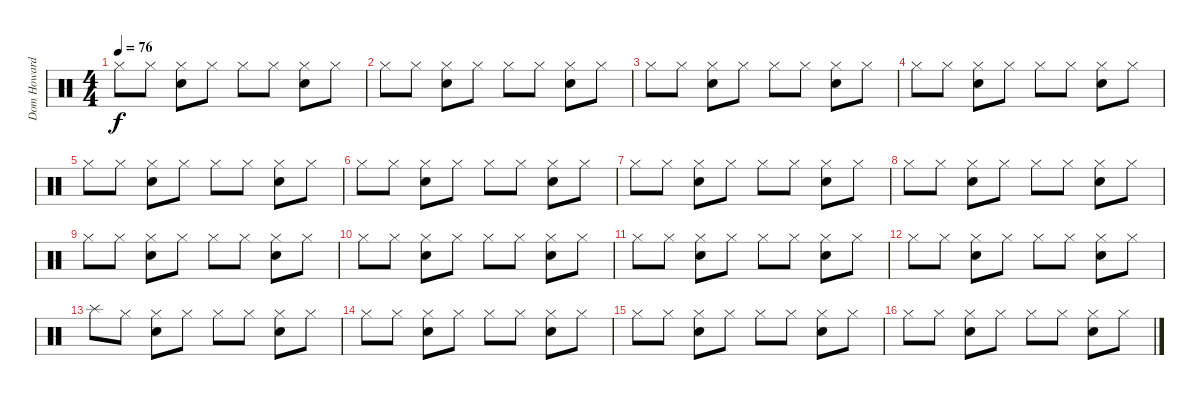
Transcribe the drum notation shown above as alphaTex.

\track ("Dom Howard" "Dom Howard") {instrument percussion}
\staff {score}
\articulation defaults
\ts (4 4)
\tempo 76
\clef neutral
\ks c "Hi-Hat (closed)".8{dy f} "Hi-Hat (closed)".8
("Hi-Hat (closed)" "Electric Snare (hit)").8 "Hi-Hat (closed)".8 "Hi-Hat (closed)".8 "Hi-Hat (closed)".8 ("Hi-Hat (closed)" "Electric Snare (hit)").8 "Hi-Hat (closed)".8 |
"Hi-Hat (closed)".8 "Hi-Hat (closed)".8 ("Hi-Hat (closed)" "Electric Snare (hit)").8 "Hi-Hat (closed)".8 "Hi-Hat (closed)".8 "Hi-Hat (closed)".8 ("Hi-Hat (closed)" "Electric Snare (hit)").8 "Hi-Hat (closed)".8 |
"Hi-Hat (closed)".8 "Hi-Hat (closed)".8 ("Hi-Hat (closed)" "Electric Snare (hit)").8 "Hi-Hat (closed)".8 "Hi-Hat (closed)".8 "Hi-Hat (closed)".8 ("Hi-Hat (closed)" "Electric Snare (hit)").8 "Hi-Hat (closed)".8 |
"Hi-Hat (closed)".8 "Hi-Hat (closed)".8 ("Hi-Hat (closed)" "Electric Snare (hit)").8 "Hi-Hat (closed)".8 "Hi-Hat (closed)".8 "Hi-Hat (closed)".8 ("Hi-Hat (closed)" "Electric Snare (hit)").8 "Hi-Hat (closed)".8 |
"Hi-Hat (closed)".8 "Hi-Hat (closed)".8 ("Hi-Hat (closed)" "Electric Snare (hit)").8 "Hi-Hat (closed)".8 "Hi-Hat (closed)".8 "Hi-Hat (closed)".8 ("Hi-Hat (closed)" "Electric Snare (hit)").8 "Hi-Hat (closed)".8 |
"Hi-Hat (closed)".8 "Hi-Hat (closed)".8 ("Hi-Hat (closed)" "Electric Snare (hit)").8 "Hi-Hat (closed)".8 "Hi-Hat (closed)".8 "Hi-Hat (closed)".8 ("Hi-Hat (closed)" "Electric Snare (hit)").8 "Hi-Hat (closed)".8 |
"Hi-Hat (closed)".8 "Hi-Hat (closed)".8 ("Hi-Hat (closed)" "Electric Snare (hit)").8 "Hi-Hat (closed)".8 "Hi-Hat (closed)".8 "Hi-Hat (closed)".8 ("Hi-Hat (closed)" "Electric Snare (hit)").8 "Hi-Hat (closed)".8 |
"Hi-Hat (closed)".8 "Hi-Hat (closed)".8 ("Hi-Hat (closed)" "Electric Snare (hit)").8 "Hi-Hat (closed)".8 "Hi-Hat (closed)".8 "Hi-Hat (closed)".8 ("Hi-Hat (closed)" "Electric Snare (hit)").8 "Hi-Hat (closed)".8 |
"Hi-Hat (closed)".8 "Hi-Hat (closed)".8 ("Hi-Hat (closed)" "Electric Snare (hit)").8 "Hi-Hat (closed)".8 "Hi-Hat (closed)".8 "Hi-Hat (closed)".8 ("Hi-Hat (closed)" "Electric Snare (hit)").8 "Hi-Hat (closed)".8 |
"Hi-Hat (closed)".8 "Hi-Hat (closed)".8 ("Hi-Hat (closed)" "Electric Snare (hit)").8 "Hi-Hat (closed)".8 "Hi-Hat (closed)".8 "Hi-Hat (closed)".8 ("Hi-Hat (closed)" "Electric Snare (hit)").8 "Hi-Hat (closed)".8 |
"Hi-Hat (closed)".8 "Hi-Hat (closed)".8 ("Hi-Hat (closed)" "Electric Snare (hit)").8 "Hi-Hat (closed)".8 "Hi-Hat (closed)".8 "Hi-Hat (closed)".8 ("Hi-Hat (closed)" "Electric Snare (hit)").8 "Hi-Hat (closed)".8 |
"Hi-Hat (closed)".8 "Hi-Hat (closed)".8 ("Hi-Hat (closed)" "Electric Snare (hit)").8 "Hi-Hat (closed)".8 "Hi-Hat (closed)".8 "Hi-Hat (closed)".8 ("Hi-Hat (closed)" "Electric Snare (hit)").8 "Hi-Hat (closed)".8 |
"Splash (hit)".8 "Hi-Hat (closed)".8 ("Hi-Hat (closed)" "Electric Snare (hit)").8 "Hi-Hat (closed)".8 "Hi-Hat (closed)".8 "Hi-Hat (closed)".8 ("Hi-Hat (closed)" "Electric Snare (hit)").8 "Hi-Hat (closed)".8 |
"Hi-Hat (closed)".8 "Hi-Hat (closed)".8 ("Hi-Hat (closed)" "Electric Snare (hit)").8 "Hi-Hat (closed)".8 "Hi-Hat (closed)".8 "Hi-Hat (closed)".8 ("Hi-Hat (closed)" "Electric Snare (hit)").8 "Hi-Hat (closed)".8 |
"Hi-Hat (closed)".8 "Hi-Hat (closed)".8 ("Hi-Hat (closed)" "Electric Snare (hit)").8 "Hi-Hat (closed)".8 "Hi-Hat (closed)".8 "Hi-Hat (closed)".8 ("Hi-Hat (closed)" "Electric Snare (hit)").8 "Hi-Hat (closed)".8 |
"Hi-Hat (closed)".8 "Hi-Hat (closed)".8 ("Hi-Hat (closed)" "Electric Snare (hit)").8 "Hi-Hat (closed)".8 "Hi-Hat (closed)".8 "Hi-Hat (closed)".8 ("Hi-Hat (closed)" "Electric Snare (hit)").8 "Hi-Hat (closed)".8
